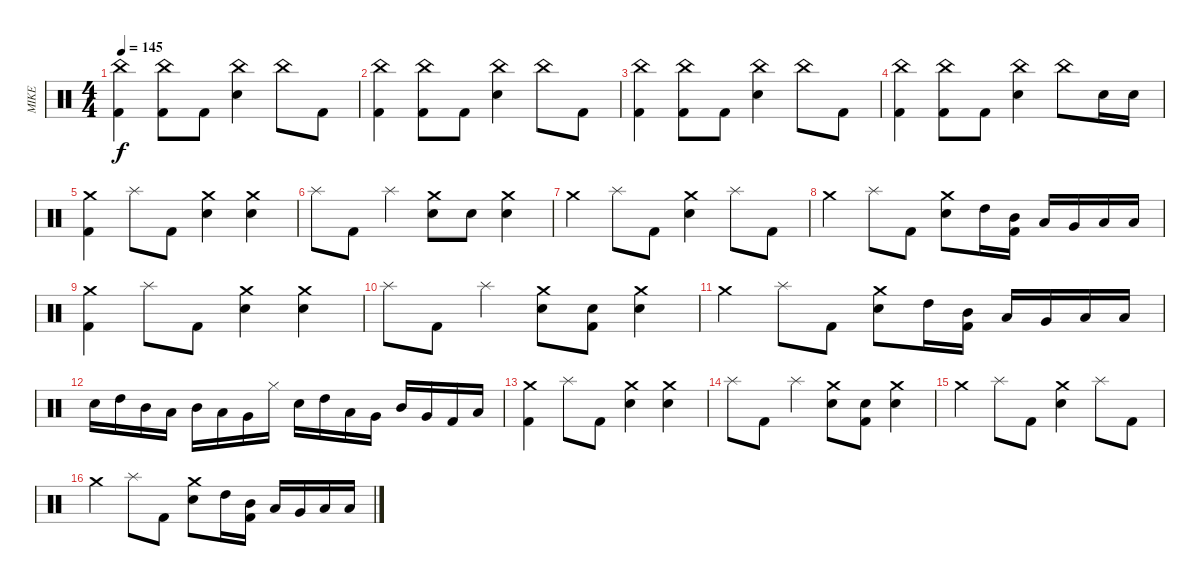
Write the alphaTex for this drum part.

\track ("MIKE" "MIKE") {instrument percussion}
\staff {score}
\articulation defaults
\ts (4 4)
\tempo 145
\clef neutral
\ks c
("China (hit)" "Kick (hit) 2").4{dy f} ("China (hit)" "Kick (hit) 2").8 "Kick (hit) 2".8 ("China (hit)" "Electric Snare (hit)").4 "China (hit)".8 "Kick (hit) 2".8 |
("China (hit)" "Kick (hit) 2").4 ("China (hit)" "Kick (hit) 2").8 "Kick (hit) 2".8 ("China (hit)" "Electric Snare (hit)").4 "China (hit)".8 "Kick (hit) 2".8 |
("China (hit)" "Kick (hit) 2").4 ("China (hit)" "Kick (hit) 2").8 "Kick (hit) 2".8 ("China (hit)" "Electric Snare (hit)").4 "China (hit)".8 "Kick (hit) 2".8 |
("China (hit)" "Kick (hit) 2").4 ("China (hit)" "Kick (hit) 2").8 "Kick (hit) 2".8 ("China (hit)" "Electric Snare (hit)").4 "China (hit)".8 "Electric Snare (hit)".16 "Electric Snare (hit)".16 |
("Crash medium (hit)" "Kick (hit) 2").4 "Splash (hit)".8 "Kick (hit) 2".8 ("Crash medium (hit)" "Electric Snare (hit)").4 ("Crash medium (hit)" "Electric Snare (hit)").4 |
"Splash (hit)".8 "Kick (hit) 2".8 "Splash (hit)".4 ("Crash medium (hit)" "Electric Snare (hit)").8 "Electric Snare (hit)".8 ("Crash medium (hit)" "Electric Snare (hit)").4 |
"Crash medium (hit)".4 "Splash (hit)".8 "Kick (hit) 2".8 ("Electric Snare (hit)" "Crash medium (hit)").4 "Splash (hit)".8 "Kick (hit) 2".8 |
"Crash medium (hit)".4 "Splash (hit)".8 "Kick (hit) 2".8 ("Electric Snare (hit)" "Crash medium (hit)").8 "High Tom (hit)".16 ("Mid Tom (hit)" "Kick (hit) 2").16 "Low Tom (hit)".16 "Very Low Tom (hit)".16 "Low Floor Tom (hit)".16 "Low Floor Tom (hit)".16 |
("Crash medium (hit)" "Kick (hit) 2").4 "Splash (hit)".8 "Kick (hit) 2".8 ("Crash medium (hit)" "Electric Snare (hit)").4 ("Crash medium (hit)" "Electric Snare (hit)").4 |
"Splash (hit)".8 "Kick (hit) 2".8 "Splash (hit)".4 ("Crash medium (hit)" "Electric Snare (hit)").8 ("Electric Snare (hit)" "Kick (hit) 2").8 ("Crash medium (hit)" "Electric Snare (hit)").4 |
"Crash medium (hit)".4 "Splash (hit)".8 "Kick (hit) 2".8 ("Electric Snare (hit)" "Crash medium (hit)").8 "High Tom (hit)".16 ("Mid Tom (hit)" "Kick (hit) 2").16 "Low Tom (hit)".16 "Very Low Tom (hit)".16 "Low Floor Tom (hit)".16 "Low Floor Tom (hit)".16 |
"Electric Snare (hit)".16 "High Tom (hit)".16 "Mid Tom (hit)".16 "Low Tom (hit)".16 "Mid Tom (hit)".16 "Low Tom (hit)".16 "Very Low Tom (hit)".16 "Hi-Hat (closed)".16 "Electric Snare (hit)".16 "High Tom (hit)".16 "Low Tom (hit)".16 "Very Low Tom (hit)".16 "Mid Tom (hit)".16 "Very Low Tom (hit)".16 "Kick (hit) 2".16 "Low Floor Tom (hit)".16 |
("Crash medium (hit)" "Kick (hit) 2").4 "Splash (hit)".8 "Kick (hit) 2".8 ("Crash medium (hit)" "Electric Snare (hit)").4 ("Crash medium (hit)" "Electric Snare (hit)").4 |
"Splash (hit)".8 "Kick (hit) 2".8 "Splash (hit)".4 ("Crash medium (hit)" "Electric Snare (hit)").8 ("Electric Snare (hit)" "Kick (hit) 2").8 ("Crash medium (hit)" "Electric Snare (hit)").4 |
"Crash medium (hit)".4 "Splash (hit)".8 "Kick (hit) 2".8 ("Electric Snare (hit)" "Crash medium (hit)").4 "Splash (hit)".8 "Kick (hit) 2".8 |
"Crash medium (hit)".4 "Splash (hit)".8 "Kick (hit) 2".8 ("Electric Snare (hit)" "Crash medium (hit)").8 "High Tom (hit)".16 ("Mid Tom (hit)" "Kick (hit) 2").16 "Low Tom (hit)".16 "Very Low Tom (hit)".16 "Low Floor Tom (hit)".16 "Low Floor Tom (hit)".16
